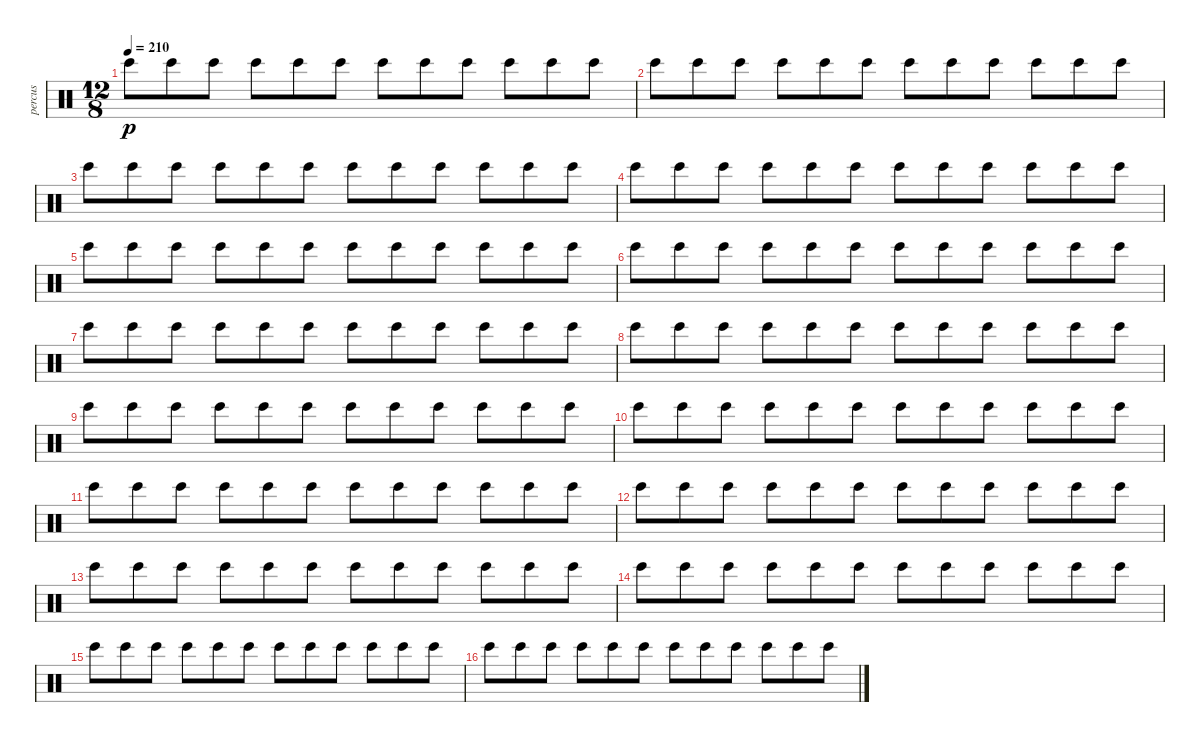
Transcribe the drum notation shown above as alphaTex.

\track ("percus" "percus") {instrument percussion}
\staff {score}
\articulation defaults
\ts (12 8)
\tempo 210
\clef neutral
\ks c "Bongo High (hit)".8{dy p} "Bongo High (hit)".8 "Bongo High (hit)".8 "Bongo High (hit)".8 "Bongo High (hit)".8 "Bongo High (hit)".8 "Bongo High (hit)".8 "Bongo High (hit)".8 "Bongo High (hit)".8 "Bongo High (hit)".8 "Bongo High (hit)".8 "Bongo High (hit)".8
|
"Bongo High (hit)".8 "Bongo High (hit)".8 "Bongo High (hit)".8 "Bongo High (hit)".8 "Bongo High (hit)".8 "Bongo High (hit)".8 "Bongo High (hit)".8 "Bongo High (hit)".8 "Bongo High (hit)".8 "Bongo High (hit)".8 "Bongo High (hit)".8 "Bongo High (hit)".8 |
"Bongo High (hit)".8 "Bongo High (hit)".8 "Bongo High (hit)".8 "Bongo High (hit)".8 "Bongo High (hit)".8 "Bongo High (hit)".8 "Bongo High (hit)".8 "Bongo High (hit)".8 "Bongo High (hit)".8 "Bongo High (hit)".8 "Bongo High (hit)".8 "Bongo High (hit)".8 |
"Bongo High (hit)".8 "Bongo High (hit)".8 "Bongo High (hit)".8 "Bongo High (hit)".8 "Bongo High (hit)".8 "Bongo High (hit)".8 "Bongo High (hit)".8 "Bongo High (hit)".8 "Bongo High (hit)".8 "Bongo High (hit)".8 "Bongo High (hit)".8 "Bongo High (hit)".8 |
"Bongo High (hit)".8 "Bongo High (hit)".8 "Bongo High (hit)".8 "Bongo High (hit)".8 "Bongo High (hit)".8 "Bongo High (hit)".8 "Bongo High (hit)".8 "Bongo High (hit)".8 "Bongo High (hit)".8 "Bongo High (hit)".8 "Bongo High (hit)".8 "Bongo High (hit)".8 |
"Bongo High (hit)".8 "Bongo High (hit)".8 "Bongo High (hit)".8 "Bongo High (hit)".8 "Bongo High (hit)".8 "Bongo High (hit)".8 "Bongo High (hit)".8 "Bongo High (hit)".8 "Bongo High (hit)".8 "Bongo High (hit)".8 "Bongo High (hit)".8 "Bongo High (hit)".8 |
"Bongo High (hit)".8 "Bongo High (hit)".8 "Bongo High (hit)".8 "Bongo High (hit)".8 "Bongo High (hit)".8 "Bongo High (hit)".8 "Bongo High (hit)".8 "Bongo High (hit)".8 "Bongo High (hit)".8 "Bongo High (hit)".8 "Bongo High (hit)".8 "Bongo High (hit)".8 |
"Bongo High (hit)".8 "Bongo High (hit)".8 "Bongo High (hit)".8 "Bongo High (hit)".8 "Bongo High (hit)".8 "Bongo High (hit)".8 "Bongo High (hit)".8 "Bongo High (hit)".8 "Bongo High (hit)".8 "Bongo High (hit)".8 "Bongo High (hit)".8 "Bongo High (hit)".8 |
"Bongo High (hit)".8 "Bongo High (hit)".8 "Bongo High (hit)".8 "Bongo High (hit)".8 "Bongo High (hit)".8 "Bongo High (hit)".8 "Bongo High (hit)".8 "Bongo High (hit)".8 "Bongo High (hit)".8 "Bongo High (hit)".8 "Bongo High (hit)".8 "Bongo High (hit)".8 |
"Bongo High (hit)".8 "Bongo High (hit)".8 "Bongo High (hit)".8 "Bongo High (hit)".8 "Bongo High (hit)".8 "Bongo High (hit)".8 "Bongo High (hit)".8 "Bongo High (hit)".8 "Bongo High (hit)".8 "Bongo High (hit)".8 "Bongo High (hit)".8 "Bongo High (hit)".8 |
"Bongo High (hit)".8 "Bongo High (hit)".8 "Bongo High (hit)".8 "Bongo High (hit)".8 "Bongo High (hit)".8 "Bongo High (hit)".8 "Bongo High (hit)".8 "Bongo High (hit)".8 "Bongo High (hit)".8 "Bongo High (hit)".8 "Bongo High (hit)".8 "Bongo High (hit)".8 |
"Bongo High (hit)".8 "Bongo High (hit)".8 "Bongo High (hit)".8 "Bongo High (hit)".8 "Bongo High (hit)".8 "Bongo High (hit)".8 "Bongo High (hit)".8 "Bongo High (hit)".8 "Bongo High (hit)".8 "Bongo High (hit)".8 "Bongo High (hit)".8 "Bongo High (hit)".8 |
"Bongo High (hit)".8 "Bongo High (hit)".8 "Bongo High (hit)".8 "Bongo High (hit)".8 "Bongo High (hit)".8 "Bongo High (hit)".8 "Bongo High (hit)".8 "Bongo High (hit)".8 "Bongo High (hit)".8 "Bongo High (hit)".8 "Bongo High (hit)".8 "Bongo High (hit)".8 |
"Bongo High (hit)".8 "Bongo High (hit)".8 "Bongo High (hit)".8 "Bongo High (hit)".8 "Bongo High (hit)".8 "Bongo High (hit)".8 "Bongo High (hit)".8 "Bongo High (hit)".8 "Bongo High (hit)".8 "Bongo High (hit)".8 "Bongo High (hit)".8 "Bongo High (hit)".8 |
"Bongo High (hit)".8 "Bongo High (hit)".8 "Bongo High (hit)".8 "Bongo High (hit)".8 "Bongo High (hit)".8 "Bongo High (hit)".8 "Bongo High (hit)".8 "Bongo High (hit)".8 "Bongo High (hit)".8 "Bongo High (hit)".8 "Bongo High (hit)".8 "Bongo High (hit)".8 |
"Bongo High (hit)".8 "Bongo High (hit)".8 "Bongo High (hit)".8 "Bongo High (hit)".8 "Bongo High (hit)".8 "Bongo High (hit)".8 "Bongo High (hit)".8 "Bongo High (hit)".8 "Bongo High (hit)".8 "Bongo High (hit)".8 "Bongo High (hit)".8 "Bongo High (hit)".8
